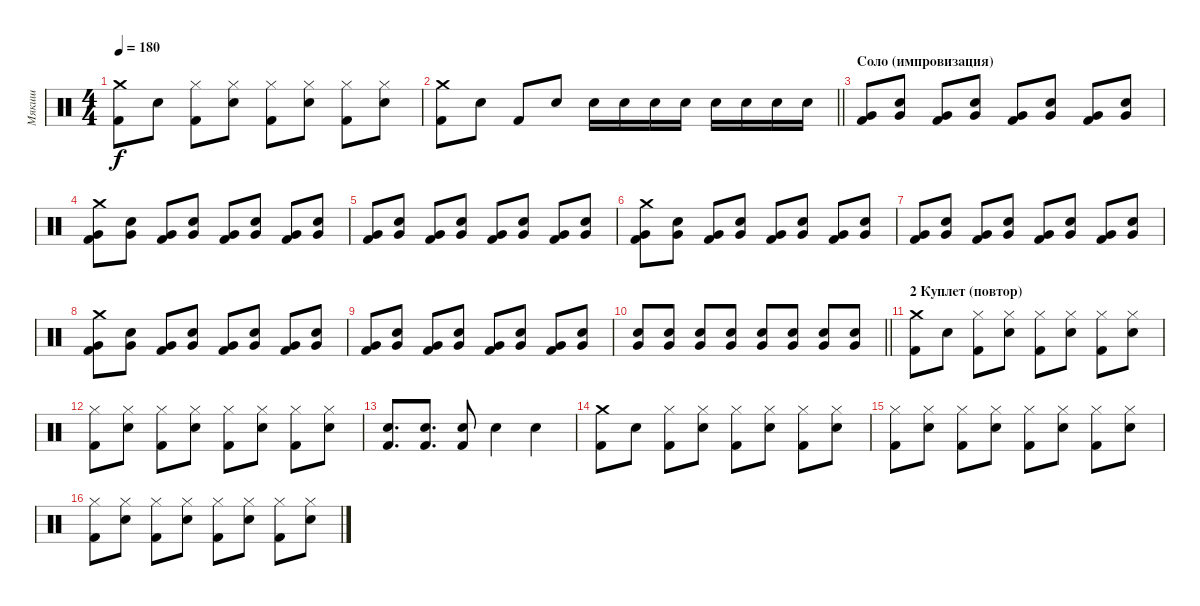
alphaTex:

\track ("Мякиш" "Мякиш") {instrument percussion}
\staff {score}
\articulation defaults
\ts (4 4)
\tempo 180
\clef neutral
\ks c
("Crash medium (hit)" "Kick (hit) 2").8{dy f} "Electric Snare (hit)".8 ("Hi-Hat (closed)" "Kick (hit) 2").8 ("Hi-Hat (closed)" "Electric Snare (hit)").8 ("Hi-Hat (closed)" "Kick (hit) 2").8 ("Hi-Hat (closed)" "Electric Snare (hit)").8 ("Hi-Hat (closed)" "Kick (hit) 2").8 ("Hi-Hat (closed)" "Electric Snare (hit)").8 |
\barLineRight lightlight
("Crash medium (hit)" "Kick (hit) 2").8 "Electric Snare (hit)".8 "Kick (hit) 2".8 "Electric Snare (hit)".8 "Electric Snare (hit)".16 "Electric Snare (hit)".16 "Electric Snare (hit)".16 "Electric Snare (hit)".16 "Electric Snare (hit)".16 "Electric Snare (hit)".16 "Electric Snare (hit)".16 "Electric Snare (hit)".16 |
\section ("" "Соло (импровизация)")
("Very Low Tom (hit)" "Kick (hit) 2").8 ("Very Low Tom (hit)" "Electric Snare (hit)").8 ("Very Low Tom (hit)" "Kick (hit) 2").8 ("Very Low Tom (hit)" "Electric Snare (hit)").8 ("Very Low Tom (hit)" "Kick (hit) 2").8 ("Very Low Tom (hit)" "Electric Snare (hit)").8 ("Very Low Tom (hit)" "Kick (hit) 2").8 ("Very Low Tom (hit)" "Electric Snare (hit)").8 |
("Crash medium (hit)" "Very Low Tom (hit)" "Kick (hit) 2").8 ("Very Low Tom (hit)" "Electric Snare (hit)").8 ("Very Low Tom (hit)" "Kick (hit) 2").8 ("Very Low Tom (hit)" "Electric Snare (hit)").8 ("Very Low Tom (hit)" "Kick (hit) 2").8 ("Very Low Tom (hit)" "Electric Snare (hit)").8 ("Very Low Tom (hit)" "Kick (hit) 2").8 ("Very Low Tom (hit)" "Electric Snare (hit)").8 |
("Very Low Tom (hit)" "Kick (hit) 2").8 ("Very Low Tom (hit)" "Electric Snare (hit)").8 ("Very Low Tom (hit)" "Kick (hit) 2").8 ("Very Low Tom (hit)" "Electric Snare (hit)").8 ("Very Low Tom (hit)" "Kick (hit) 2").8 ("Very Low Tom (hit)" "Electric Snare (hit)").8 ("Very Low Tom (hit)" "Kick (hit) 2").8 ("Very Low Tom (hit)" "Electric Snare (hit)").8 |
("Crash medium (hit)" "Very Low Tom (hit)" "Kick (hit) 2").8 ("Very Low Tom (hit)" "Electric Snare (hit)").8 ("Very Low Tom (hit)" "Kick (hit) 2").8 ("Very Low Tom (hit)" "Electric Snare (hit)").8 ("Very Low Tom (hit)" "Kick (hit) 2").8 ("Very Low Tom (hit)" "Electric Snare (hit)").8 ("Very Low Tom (hit)" "Kick (hit) 2").8 ("Very Low Tom (hit)" "Electric Snare (hit)").8 |
("Very Low Tom (hit)" "Kick (hit) 2").8 ("Very Low Tom (hit)" "Electric Snare (hit)").8 ("Very Low Tom (hit)" "Kick (hit) 2").8 ("Very Low Tom (hit)" "Electric Snare (hit)").8 ("Very Low Tom (hit)" "Kick (hit) 2").8 ("Very Low Tom (hit)" "Electric Snare (hit)").8 ("Very Low Tom (hit)" "Kick (hit) 2").8 ("Very Low Tom (hit)" "Electric Snare (hit)").8 |
("Crash medium (hit)" "Very Low Tom (hit)" "Kick (hit) 2").8 ("Very Low Tom (hit)" "Electric Snare (hit)").8 ("Very Low Tom (hit)" "Kick (hit) 2").8 ("Very Low Tom (hit)" "Electric Snare (hit)").8 ("Very Low Tom (hit)" "Kick (hit) 2").8 ("Very Low Tom (hit)" "Electric Snare (hit)").8 ("Very Low Tom (hit)" "Kick (hit) 2").8 ("Very Low Tom (hit)" "Electric Snare (hit)").8 |
("Very Low Tom (hit)" "Kick (hit) 2").8 ("Very Low Tom (hit)" "Electric Snare (hit)").8 ("Very Low Tom (hit)" "Kick (hit) 2").8 ("Very Low Tom (hit)" "Electric Snare (hit)").8 ("Very Low Tom (hit)" "Kick (hit) 2").8 ("Very Low Tom (hit)" "Electric Snare (hit)").8 ("Very Low Tom (hit)" "Kick (hit) 2").8 ("Very Low Tom (hit)" "Electric Snare (hit)").8 |
\barLineRight lightlight
("Very Low Tom (hit)" "Electric Snare (hit)").8 ("Very Low Tom (hit)" "Electric Snare (hit)").8 ("Very Low Tom (hit)" "Electric Snare (hit)").8 ("Very Low Tom (hit)" "Electric Snare (hit)").8 ("Very Low Tom (hit)" "Electric Snare (hit)").8 ("Very Low Tom (hit)" "Electric Snare (hit)").8 ("Very Low Tom (hit)" "Electric Snare (hit)").8 ("Very Low Tom (hit)" "Electric Snare (hit)").8 |
\section ("" "2 Куплет (повтор)")
("Crash medium (hit)" "Kick (hit) 2").8 "Electric Snare (hit)".8 ("Hi-Hat (closed)" "Kick (hit) 2").8 ("Hi-Hat (closed)" "Electric Snare (hit)").8 ("Hi-Hat (closed)" "Kick (hit) 2").8 ("Hi-Hat (closed)" "Electric Snare (hit)").8 ("Hi-Hat (closed)" "Kick (hit) 2").8 ("Hi-Hat (closed)" "Electric Snare (hit)").8 |
("Hi-Hat (closed)" "Kick (hit) 2").8 ("Hi-Hat (closed)" "Electric Snare (hit)").8 ("Hi-Hat (closed)" "Kick (hit) 2").8 ("Hi-Hat (closed)" "Electric Snare (hit)").8 ("Hi-Hat (closed)" "Kick (hit) 2").8 ("Hi-Hat (closed)" "Electric Snare (hit)").8 ("Hi-Hat (closed)" "Kick (hit) 2").8 ("Hi-Hat (closed)" "Electric Snare (hit)").8 |
("Electric Snare (hit)" "Kick (hit) 2").8{d} ("Electric Snare (hit)" "Kick (hit) 2").8{d} ("Electric Snare (hit)" "Kick (hit) 2").8 "Electric Snare (hit)".4 "Electric Snare (hit)".4 |
("Crash medium (hit)" "Kick (hit) 2").8 "Electric Snare (hit)".8 ("Hi-Hat (closed)" "Kick (hit) 2").8 ("Hi-Hat (closed)" "Electric Snare (hit)").8 ("Hi-Hat (closed)" "Kick (hit) 2").8 ("Hi-Hat (closed)" "Electric Snare (hit)").8 ("Hi-Hat (closed)" "Kick (hit) 2").8 ("Hi-Hat (closed)" "Electric Snare (hit)").8 |
("Hi-Hat (closed)" "Kick (hit) 2").8 ("Hi-Hat (closed)" "Electric Snare (hit)").8 ("Hi-Hat (closed)" "Kick (hit) 2").8 ("Hi-Hat (closed)" "Electric Snare (hit)").8 ("Hi-Hat (closed)" "Kick (hit) 2").8 ("Hi-Hat (closed)" "Electric Snare (hit)").8 ("Hi-Hat (closed)" "Kick (hit) 2").8 ("Hi-Hat (closed)" "Electric Snare (hit)").8 |
("Hi-Hat (closed)" "Kick (hit) 2").8 ("Hi-Hat (closed)" "Electric Snare (hit)").8 ("Hi-Hat (closed)" "Kick (hit) 2").8 ("Hi-Hat (closed)" "Electric Snare (hit)").8 ("Hi-Hat (closed)" "Kick (hit) 2").8 ("Hi-Hat (closed)" "Electric Snare (hit)").8 ("Hi-Hat (closed)" "Kick (hit) 2").8 ("Hi-Hat (closed)" "Electric Snare (hit)").8
